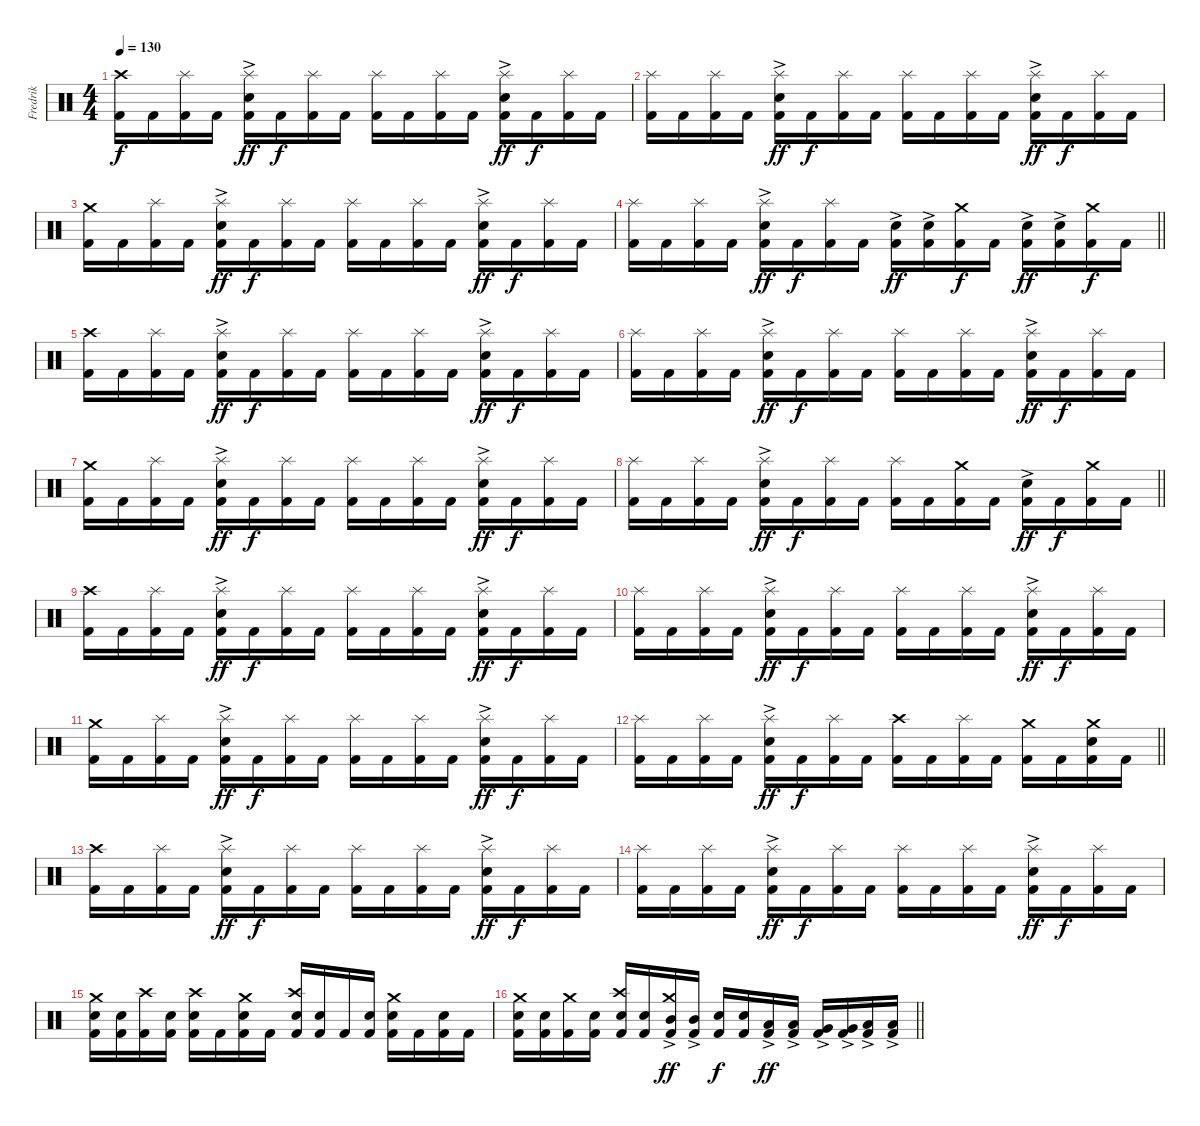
\track ("Fredrik" "Fredrik") {instrument percussion}
\staff {score}
\articulation defaults
\ts (4 4)
\section ("" "")
\tempo 130
\clef neutral
\ks c
("Kick (hit) 2" "Crash high (hit)").16{dy f} "Kick (hit) 2".16 ("Kick (hit) 2" "Splash (hit)").16 "Kick (hit) 2".16 ("Kick (hit) 2" "Snare (hit) 2"{ac} "Splash (hit)").16{dy ff} "Kick (hit) 2".16{dy f} ("Kick (hit) 2" "Splash (hit)").16 "Kick (hit) 2".16 ("Kick (hit) 2" "Splash (hit)").16 "Kick (hit) 2".16 ("Kick (hit) 2" "Splash (hit)").16 "Kick (hit) 2".16 ("Kick (hit) 2" "Snare (hit) 2"{ac} "Splash (hit)").16{dy ff} "Kick (hit) 2".16{dy f} ("Kick (hit) 2" "Splash (hit)").16 "Kick (hit) 2".16 |
("Kick (hit) 2" "Splash (hit)").16 "Kick (hit) 2".16 ("Kick (hit) 2" "Splash (hit)").16 "Kick (hit) 2".16 ("Kick (hit) 2" "Snare (hit) 2"{ac} "Splash (hit)").16{dy ff} "Kick (hit) 2".16{dy f} ("Kick (hit) 2" "Splash (hit)").16 "Kick (hit) 2".16 ("Kick (hit) 2" "Splash (hit)").16 "Kick (hit) 2".16 ("Kick (hit) 2" "Splash (hit)").16 "Kick (hit) 2".16 ("Kick (hit) 2" "Snare (hit) 2"{ac} "Splash (hit)").16{dy ff} "Kick (hit) 2".16{dy f} ("Kick (hit) 2" "Splash (hit)").16 "Kick (hit) 2".16 |
("Kick (hit) 2" "Crash medium (hit)").16 "Kick (hit) 2".16 ("Kick (hit) 2" "Splash (hit)").16 "Kick (hit) 2".16 ("Kick (hit) 2" "Snare (hit) 2"{ac} "Splash (hit)").16{dy ff} "Kick (hit) 2".16{dy f} ("Kick (hit) 2" "Splash (hit)").16 "Kick (hit) 2".16 ("Kick (hit) 2" "Splash (hit)").16 "Kick (hit) 2".16 ("Kick (hit) 2" "Splash (hit)").16 "Kick (hit) 2".16 ("Kick (hit) 2" "Snare (hit) 2"{ac} "Splash (hit)").16{dy ff} "Kick (hit) 2".16{dy f} ("Kick (hit) 2" "Splash (hit)").16 "Kick (hit) 2".16 |
\barLineRight lightlight
("Kick (hit) 2" "Splash (hit)").16 "Kick (hit) 2".16 ("Kick (hit) 2" "Splash (hit)").16 "Kick (hit) 2".16 ("Kick (hit) 2" "Snare (hit) 2"{ac} "Splash (hit)").16{dy ff} "Kick (hit) 2".16{dy f} ("Kick (hit) 2" "Splash (hit)").16 "Kick (hit) 2".16 ("Kick (hit) 2" "Snare (hit) 2"{ac}).16{dy ff} ("Kick (hit) 2" "Snare (hit) 2"{ac}).16 ("Kick (hit) 2" "Crash medium (hit)").16{dy f} "Kick (hit) 2".16 ("Kick (hit) 2" "Snare (hit) 2"{ac}).16{dy ff} ("Kick (hit) 2" "Snare (hit) 2"{ac}).16 ("Kick (hit) 2" "Crash medium (hit)").16{dy f} "Kick (hit) 2".16 |
\section ("" "")
("Kick (hit) 2" "Crash high (hit)").16 "Kick (hit) 2".16 ("Kick (hit) 2" "Splash (hit)").16 "Kick (hit) 2".16 ("Kick (hit) 2" "Snare (hit) 2"{ac} "Splash (hit)").16{dy ff} "Kick (hit) 2".16{dy f} ("Kick (hit) 2" "Splash (hit)").16 "Kick (hit) 2".16 ("Kick (hit) 2" "Splash (hit)").16 "Kick (hit) 2".16 ("Kick (hit) 2" "Splash (hit)").16 "Kick (hit) 2".16 ("Kick (hit) 2" "Snare (hit) 2"{ac} "Splash (hit)").16{dy ff} "Kick (hit) 2".16{dy f} ("Kick (hit) 2" "Splash (hit)").16 "Kick (hit) 2".16 |
("Kick (hit) 2" "Splash (hit)").16 "Kick (hit) 2".16 ("Kick (hit) 2" "Splash (hit)").16 "Kick (hit) 2".16 ("Kick (hit) 2" "Snare (hit) 2"{ac} "Splash (hit)").16{dy ff} "Kick (hit) 2".16{dy f} ("Kick (hit) 2" "Splash (hit)").16 "Kick (hit) 2".16 ("Kick (hit) 2" "Splash (hit)").16 "Kick (hit) 2".16 ("Kick (hit) 2" "Splash (hit)").16 "Kick (hit) 2".16 ("Kick (hit) 2" "Snare (hit) 2"{ac} "Splash (hit)").16{dy ff} "Kick (hit) 2".16{dy f} ("Kick (hit) 2" "Splash (hit)").16 "Kick (hit) 2".16 |
("Kick (hit) 2" "Crash medium (hit)").16 "Kick (hit) 2".16 ("Kick (hit) 2" "Splash (hit)").16 "Kick (hit) 2".16 ("Kick (hit) 2" "Snare (hit) 2"{ac} "Splash (hit)").16{dy ff} "Kick (hit) 2".16{dy f} ("Kick (hit) 2" "Splash (hit)").16 "Kick (hit) 2".16 ("Kick (hit) 2" "Splash (hit)").16 "Kick (hit) 2".16 ("Kick (hit) 2" "Splash (hit)").16 "Kick (hit) 2".16 ("Kick (hit) 2" "Snare (hit) 2"{ac} "Splash (hit)").16{dy ff} "Kick (hit) 2".16{dy f} ("Kick (hit) 2" "Splash (hit)").16 "Kick (hit) 2".16 |
\barLineRight lightlight
("Kick (hit) 2" "Splash (hit)").16 "Kick (hit) 2".16 ("Kick (hit) 2" "Splash (hit)").16 "Kick (hit) 2".16 ("Kick (hit) 2" "Snare (hit) 2"{ac} "Splash (hit)").16{dy ff} "Kick (hit) 2".16{dy f} ("Kick (hit) 2" "Splash (hit)").16 "Kick (hit) 2".16 ("Kick (hit) 2" "Splash (hit)").16 "Kick (hit) 2".16 ("Kick (hit) 2" "Crash medium (hit)").16 "Kick (hit) 2".16 ("Kick (hit) 2" "Snare (hit) 2"{ac}).16{dy ff} "Kick (hit) 2".16{dy f} ("Kick (hit) 2" "Crash medium (hit)").16 "Kick (hit) 2".16 |
\section ("" "")
("Kick (hit) 2" "Crash high (hit)").16 "Kick (hit) 2".16 ("Kick (hit) 2" "Splash (hit)").16 "Kick (hit) 2".16 ("Kick (hit) 2" "Snare (hit) 2"{ac} "Splash (hit)").16{dy ff} "Kick (hit) 2".16{dy f} ("Kick (hit) 2" "Splash (hit)").16 "Kick (hit) 2".16 ("Kick (hit) 2" "Splash (hit)").16 "Kick (hit) 2".16 ("Kick (hit) 2" "Splash (hit)").16 "Kick (hit) 2".16 ("Kick (hit) 2" "Snare (hit) 2"{ac} "Splash (hit)").16{dy ff} "Kick (hit) 2".16{dy f} ("Kick (hit) 2" "Splash (hit)").16 "Kick (hit) 2".16 |
("Kick (hit) 2" "Splash (hit)").16 "Kick (hit) 2".16 ("Kick (hit) 2" "Splash (hit)").16 "Kick (hit) 2".16 ("Kick (hit) 2" "Snare (hit) 2"{ac} "Splash (hit)").16{dy ff} "Kick (hit) 2".16{dy f} ("Kick (hit) 2" "Splash (hit)").16 "Kick (hit) 2".16 ("Kick (hit) 2" "Splash (hit)").16 "Kick (hit) 2".16 ("Kick (hit) 2" "Splash (hit)").16 "Kick (hit) 2".16 ("Kick (hit) 2" "Snare (hit) 2"{ac} "Splash (hit)").16{dy ff} "Kick (hit) 2".16{dy f} ("Kick (hit) 2" "Splash (hit)").16 "Kick (hit) 2".16 |
("Kick (hit) 2" "Crash medium (hit)").16 "Kick (hit) 2".16 ("Kick (hit) 2" "Splash (hit)").16 "Kick (hit) 2".16 ("Kick (hit) 2" "Snare (hit) 2"{ac} "Splash (hit)").16{dy ff} "Kick (hit) 2".16{dy f} ("Kick (hit) 2" "Splash (hit)").16 "Kick (hit) 2".16 ("Kick (hit) 2" "Splash (hit)").16 "Kick (hit) 2".16 ("Kick (hit) 2" "Splash (hit)").16 "Kick (hit) 2".16 ("Kick (hit) 2" "Snare (hit) 2"{ac} "Splash (hit)").16{dy ff} "Kick (hit) 2".16{dy f} ("Kick (hit) 2" "Splash (hit)").16 "Kick (hit) 2".16 |
\barLineRight lightlight
("Kick (hit) 2" "Splash (hit)").16 "Kick (hit) 2".16 ("Kick (hit) 2" "Splash (hit)").16 "Kick (hit) 2".16 ("Kick (hit) 2" "Snare (hit) 2"{ac} "Splash (hit)").16{dy ff} "Kick (hit) 2".16{dy f} ("Kick (hit) 2" "Splash (hit)").16 "Kick (hit) 2".16 ("Kick (hit) 2" "Crash high (hit)").16 "Kick (hit) 2".16 ("Kick (hit) 2" "Splash (hit)").16 "Kick (hit) 2".16 ("Kick (hit) 2" "Crash medium (hit)").16 "Kick (hit) 2".16 ("Kick (hit) 2" "Snare (hit) 2" "Crash medium (hit)").16 "Kick (hit) 2".16 |
\section ("" "")
("Kick (hit) 2" "Crash high (hit)").16 "Kick (hit) 2".16 ("Kick (hit) 2" "Splash (hit)").16 "Kick (hit) 2".16 ("Kick (hit) 2" "Snare (hit) 2"{ac} "Splash (hit)").16{dy ff} "Kick (hit) 2".16{dy f} ("Kick (hit) 2" "Splash (hit)").16 "Kick (hit) 2".16 ("Kick (hit) 2" "Splash (hit)").16 "Kick (hit) 2".16 ("Kick (hit) 2" "Splash (hit)").16 "Kick (hit) 2".16 ("Kick (hit) 2" "Snare (hit) 2"{ac} "Splash (hit)").16{dy ff} "Kick (hit) 2".16{dy f} ("Kick (hit) 2" "Splash (hit)").16 "Kick (hit) 2".16 |
("Kick (hit) 2" "Splash (hit)").16 "Kick (hit) 2".16 ("Kick (hit) 2" "Splash (hit)").16 "Kick (hit) 2".16 ("Kick (hit) 2" "Snare (hit) 2"{ac} "Splash (hit)").16{dy ff} "Kick (hit) 2".16{dy f} ("Kick (hit) 2" "Splash (hit)").16 "Kick (hit) 2".16 ("Kick (hit) 2" "Splash (hit)").16 "Kick (hit) 2".16 ("Kick (hit) 2" "Splash (hit)").16 "Kick (hit) 2".16 ("Kick (hit) 2" "Snare (hit) 2"{ac} "Splash (hit)").16{dy ff} "Kick (hit) 2".16{dy f} ("Kick (hit) 2" "Splash (hit)").16 "Kick (hit) 2".16 |
("Kick (hit) 2" "Snare (hit) 2" "Crash medium (hit)").16 ("Kick (hit) 2" "Snare (hit) 2").16 ("Kick (hit) 2" "Crash high (hit)").16 ("Kick (hit) 2" "Snare (hit) 2").16 ("Kick (hit) 2" "Snare (hit) 2" "Crash high (hit)").16 "Kick (hit) 2".16 ("Kick (hit) 2" "Snare (hit) 2" "Crash medium (hit)").16 "Kick (hit) 2".16 ("Kick (hit) 2" "Snare (hit) 2" "Crash high (hit)").16 ("Kick (hit) 2" "Snare (hit) 2").16 "Kick (hit) 2".16 ("Kick (hit) 2" "Snare (hit) 2").16 ("Kick (hit) 2" "Snare (hit) 2" "Crash medium (hit)").16 "Kick (hit) 2".16 ("Kick (hit) 2" "Snare (hit) 2").16 "Kick (hit) 2".16 |
\barLineRight lightlight
("Kick (hit) 2" "Snare (hit) 2" "Crash medium (hit)").16 ("Kick (hit) 2" "Snare (hit) 2").16 ("Kick (hit) 2" "Crash medium (hit)").16 ("Kick (hit) 2" "Snare (hit) 2").16 ("Kick (hit) 2" "Snare (hit) 2" "Crash high (hit)").16 ("Kick (hit) 2" "Snare (hit) 2").16 ("Kick (hit) 2" "Mid Tom (hit)"{ac} "Crash medium (hit)").16{dy ff} ("Kick (hit) 2" "Mid Tom (hit)"{ac}).16 ("Kick (hit) 2" "Snare (hit) 2").16{dy f} ("Kick (hit) 2" "Snare (hit) 2").16 ("Kick (hit) 2" "Low Tom (hit)"{ac}).16{dy ff} ("Kick (hit) 2" "Low Tom (hit)"{ac}).16 ("Kick (hit) 2" "Very Low Tom (hit)"{ac}).16 ("Kick (hit) 2" "Very Low Tom (hit)"{ac}).16 ("Kick (hit) 2" "Low Floor Tom (hit)"{ac}).16 ("Kick (hit) 2" "Low Floor Tom (hit)"{ac}).16
